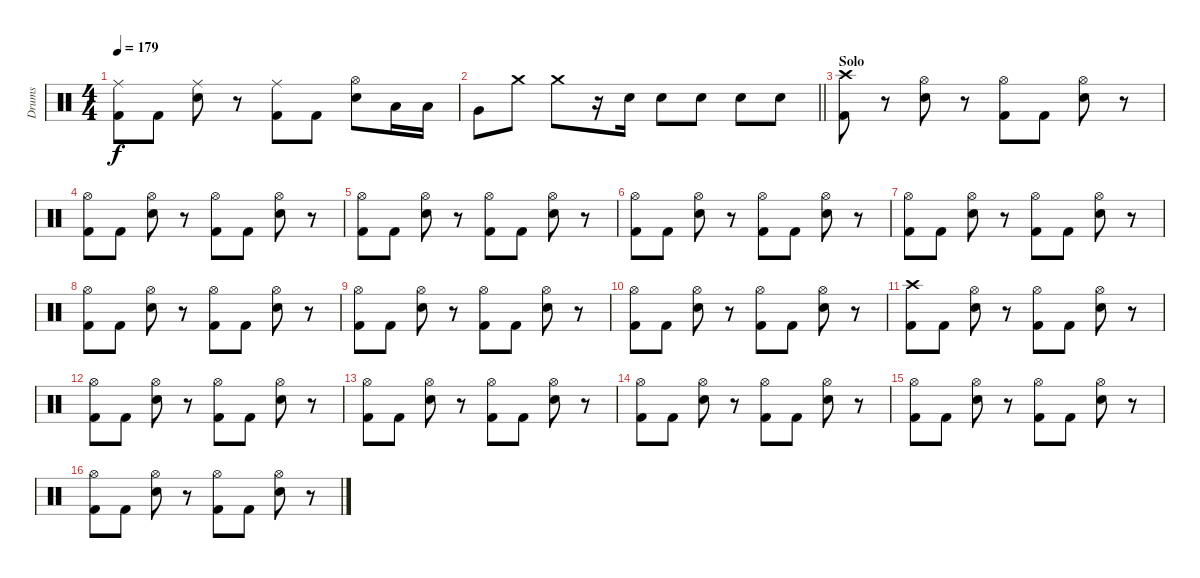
\track ("Drums" "Drums") {instrument percussion}
\staff {score}
\articulation defaults
\ts (4 4)
\tempo 179
\clef neutral
\ks c
("Ride (middle)" "Kick (hit) 2").8{dy f} "Kick (hit) 2".8 ("Ride (middle)" "Snare (hit) 2").8 r.8 ("Ride (middle)" "Kick (hit) 2").8 "Kick (hit) 2".8 ("Hi-Hat (open)" "Snare (hit) 2").8 "Low Tom (hit)".16 "Low Tom (hit)".16 |
\barLineRight lightlight "Very Low Tom (hit)".8 "Crash medium (hit)".8 "Crash medium (hit)".8
r.16 "Snare (hit) 2".16 "Snare (hit) 2".8 "Snare (hit) 2".8 "Snare (hit) 2".8 "Snare (hit) 2".8 |
\section ("" "Solo")
("Crash high (hit)" "Kick (hit) 2").8 r.8 ("Hi-Hat (open)" "Snare (hit) 2").8 r.8 ("Hi-Hat (open)" "Kick (hit) 2").8 "Kick (hit) 2".8 ("Hi-Hat (open)" "Snare (hit) 2").8 r.8 |
("Hi-Hat (open)" "Kick (hit) 2").8 "Kick (hit) 2".8 ("Hi-Hat (open)" "Snare (hit) 2").8 r.8 ("Hi-Hat (open)" "Kick (hit) 2").8 "Kick (hit) 2".8 ("Hi-Hat (open)" "Snare (hit) 2").8 r.8 |
("Hi-Hat (open)" "Kick (hit) 2").8 "Kick (hit) 2".8 ("Hi-Hat (open)" "Snare (hit) 2").8 r.8 ("Hi-Hat (open)" "Kick (hit) 2").8 "Kick (hit) 2".8 ("Hi-Hat (open)" "Snare (hit) 2").8 r.8 |
("Hi-Hat (open)" "Kick (hit) 2").8 "Kick (hit) 2".8 ("Hi-Hat (open)" "Snare (hit) 2").8 r.8 ("Hi-Hat (open)" "Kick (hit) 2").8 "Kick (hit) 2".8 ("Hi-Hat (open)" "Snare (hit) 2").8 r.8 |
("Hi-Hat (open)" "Kick (hit) 2").8 "Kick (hit) 2".8 ("Hi-Hat (open)" "Snare (hit) 2").8 r.8 ("Hi-Hat (open)" "Kick (hit) 2").8 "Kick (hit) 2".8 ("Hi-Hat (open)" "Snare (hit) 2").8 r.8 |
("Hi-Hat (open)" "Kick (hit) 2").8 "Kick (hit) 2".8 ("Hi-Hat (open)" "Snare (hit) 2").8 r.8 ("Hi-Hat (open)" "Kick (hit) 2").8 "Kick (hit) 2".8 ("Hi-Hat (open)" "Snare (hit) 2").8 r.8 |
("Hi-Hat (open)" "Kick (hit) 2").8 "Kick (hit) 2".8 ("Hi-Hat (open)" "Snare (hit) 2").8 r.8 ("Hi-Hat (open)" "Kick (hit) 2").8 "Kick (hit) 2".8 ("Hi-Hat (open)" "Snare (hit) 2").8 r.8 |
("Hi-Hat (open)" "Kick (hit) 2").8 "Kick (hit) 2".8 ("Hi-Hat (open)" "Snare (hit) 2").8 r.8 ("Hi-Hat (open)" "Kick (hit) 2").8 "Kick (hit) 2".8 ("Hi-Hat (open)" "Snare (hit) 2").8 r.8 |
("Crash high (hit)" "Kick (hit) 2").8 "Kick (hit) 2".8 ("Hi-Hat (open)" "Snare (hit) 2").8 r.8 ("Hi-Hat (open)" "Kick (hit) 2").8 "Kick (hit) 2".8 ("Hi-Hat (open)" "Snare (hit) 2").8 r.8 |
("Hi-Hat (open)" "Kick (hit) 2").8 "Kick (hit) 2".8 ("Hi-Hat (open)" "Snare (hit) 2").8 r.8 ("Hi-Hat (open)" "Kick (hit) 2").8 "Kick (hit) 2".8 ("Hi-Hat (open)" "Snare (hit) 2").8 r.8 |
("Hi-Hat (open)" "Kick (hit) 2").8 "Kick (hit) 2".8 ("Hi-Hat (open)" "Snare (hit) 2").8 r.8 ("Hi-Hat (open)" "Kick (hit) 2").8 "Kick (hit) 2".8 ("Hi-Hat (open)" "Snare (hit) 2").8 r.8 |
("Hi-Hat (open)" "Kick (hit) 2").8 "Kick (hit) 2".8 ("Hi-Hat (open)" "Snare (hit) 2").8 r.8 ("Hi-Hat (open)" "Kick (hit) 2").8 "Kick (hit) 2".8 ("Hi-Hat (open)" "Snare (hit) 2").8 r.8 |
("Hi-Hat (open)" "Kick (hit) 2").8 "Kick (hit) 2".8 ("Hi-Hat (open)" "Snare (hit) 2").8 r.8 ("Hi-Hat (open)" "Kick (hit) 2").8 "Kick (hit) 2".8 ("Hi-Hat (open)" "Snare (hit) 2").8 r.8 |
("Hi-Hat (open)" "Kick (hit) 2").8 "Kick (hit) 2".8 ("Hi-Hat (open)" "Snare (hit) 2").8 r.8 ("Hi-Hat (open)" "Kick (hit) 2").8 "Kick (hit) 2".8 ("Hi-Hat (open)" "Snare (hit) 2").8 r.8
